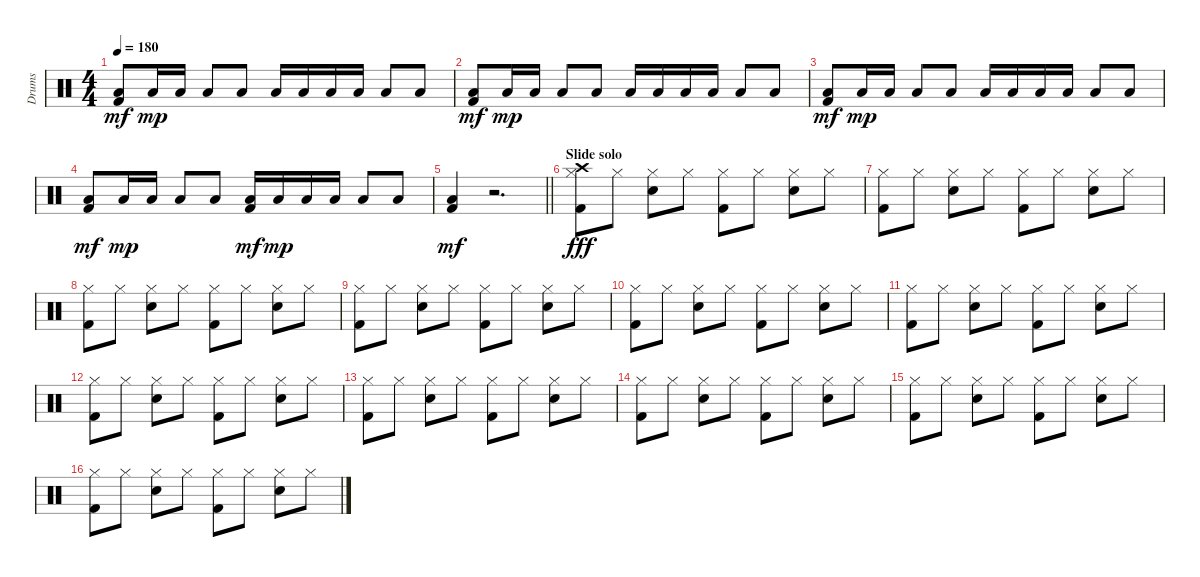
\track ("Drums" "Drums") {instrument percussion}
\staff {score}
\articulation defaults
\ts (4 4)
\tempo 180
\clef neutral
\ks c
("Low Tom (hit)" "Kick (hit) 2").8{dy mf} "Low Tom (hit)".16{dy mp} "Low Tom (hit)".16 "Low Tom (hit)".8 "Low Tom (hit)".8 "Low Tom (hit)".16 "Low Tom (hit)".16 "Low Tom (hit)".16 "Low Tom (hit)".16 "Low Tom (hit)".8 "Low Tom (hit)".8 |
("Low Tom (hit)" "Kick (hit) 2").8{dy mf} "Low Tom (hit)".16{dy mp} "Low Tom (hit)".16 "Low Tom (hit)".8 "Low Tom (hit)".8 "Low Tom (hit)".16 "Low Tom (hit)".16 "Low Tom (hit)".16 "Low Tom (hit)".16 "Low Tom (hit)".8 "Low Tom (hit)".8 |
("Low Tom (hit)" "Kick (hit) 2").8{dy mf} "Low Tom (hit)".16{dy mp} "Low Tom (hit)".16 "Low Tom (hit)".8 "Low Tom (hit)".8 "Low Tom (hit)".16 "Low Tom (hit)".16 "Low Tom (hit)".16 "Low Tom (hit)".16 "Low Tom (hit)".8 "Low Tom (hit)".8 |
("Low Tom (hit)" "Kick (hit) 2").8{dy mf} "Low Tom (hit)".16{dy mp} "Low Tom (hit)".16 "Low Tom (hit)".8 "Low Tom (hit)".8 ("Low Tom (hit)" "Kick (hit) 2").16{dy mf} "Low Tom (hit)".16{dy mp} "Low Tom (hit)".16 "Low Tom (hit)".16 "Low Tom (hit)".8 "Low Tom (hit)".8 |
\barLineRight lightlight
("Low Tom (hit)" "Kick (hit) 2").4{dy mf} r.2{d} |
\section ("" "Slide solo")
("Crash high (hit)" "Hi-Hat (closed)" "Kick (hit) 2").8{dy fff} "Hi-Hat (closed)".8 ("Hi-Hat (closed)" "Snare (hit) 2").8 "Hi-Hat (closed)".8 ("Hi-Hat (closed)" "Kick (hit) 2").8 "Hi-Hat (closed)".8 ("Hi-Hat (closed)" "Snare (hit) 2").8 "Hi-Hat (closed)".8 |
("Hi-Hat (closed)" "Kick (hit) 2").8 "Hi-Hat (closed)".8 ("Hi-Hat (closed)" "Snare (hit) 2").8 "Hi-Hat (closed)".8 ("Hi-Hat (closed)" "Kick (hit) 2").8 "Hi-Hat (closed)".8 ("Hi-Hat (closed)" "Snare (hit) 2").8 "Hi-Hat (closed)".8 |
("Hi-Hat (closed)" "Kick (hit) 2").8 "Hi-Hat (closed)".8 ("Hi-Hat (closed)" "Snare (hit) 2").8 "Hi-Hat (closed)".8 ("Hi-Hat (closed)" "Kick (hit) 2").8 "Hi-Hat (closed)".8 ("Hi-Hat (closed)" "Snare (hit) 2").8 "Hi-Hat (closed)".8 |
("Hi-Hat (closed)" "Kick (hit) 2").8 "Hi-Hat (closed)".8 ("Hi-Hat (closed)" "Snare (hit) 2").8 "Hi-Hat (closed)".8 ("Hi-Hat (closed)" "Kick (hit) 2").8 "Hi-Hat (closed)".8 ("Hi-Hat (closed)" "Snare (hit) 2").8 "Hi-Hat (closed)".8 |
("Hi-Hat (closed)" "Kick (hit) 2").8 "Hi-Hat (closed)".8 ("Hi-Hat (closed)" "Snare (hit) 2").8 "Hi-Hat (closed)".8 ("Hi-Hat (closed)" "Kick (hit) 2").8 "Hi-Hat (closed)".8 ("Hi-Hat (closed)" "Snare (hit) 2").8 "Hi-Hat (closed)".8 |
("Hi-Hat (closed)" "Kick (hit) 2").8 "Hi-Hat (closed)".8 ("Hi-Hat (closed)" "Snare (hit) 2").8 "Hi-Hat (closed)".8 ("Hi-Hat (closed)" "Kick (hit) 2").8 "Hi-Hat (closed)".8 ("Hi-Hat (closed)" "Snare (hit) 2").8 "Hi-Hat (closed)".8 |
("Hi-Hat (closed)" "Kick (hit) 2").8 "Hi-Hat (closed)".8 ("Hi-Hat (closed)" "Snare (hit) 2").8 "Hi-Hat (closed)".8 ("Hi-Hat (closed)" "Kick (hit) 2").8 "Hi-Hat (closed)".8 ("Hi-Hat (closed)" "Snare (hit) 2").8 "Hi-Hat (closed)".8 |
("Hi-Hat (closed)" "Kick (hit) 2").8 "Hi-Hat (closed)".8 ("Hi-Hat (closed)" "Snare (hit) 2").8 "Hi-Hat (closed)".8 ("Hi-Hat (closed)" "Kick (hit) 2").8 "Hi-Hat (closed)".8 ("Hi-Hat (closed)" "Snare (hit) 2").8 "Hi-Hat (closed)".8 |
("Hi-Hat (closed)" "Kick (hit) 2").8 "Hi-Hat (closed)".8 ("Hi-Hat (closed)" "Snare (hit) 2").8 "Hi-Hat (closed)".8 ("Hi-Hat (closed)" "Kick (hit) 2").8 "Hi-Hat (closed)".8 ("Hi-Hat (closed)" "Snare (hit) 2").8 "Hi-Hat (closed)".8 |
("Hi-Hat (closed)" "Kick (hit) 2").8 "Hi-Hat (closed)".8 ("Hi-Hat (closed)" "Snare (hit) 2").8 "Hi-Hat (closed)".8 ("Hi-Hat (closed)" "Kick (hit) 2").8 "Hi-Hat (closed)".8 ("Hi-Hat (closed)" "Snare (hit) 2").8 "Hi-Hat (closed)".8 |
("Hi-Hat (closed)" "Kick (hit) 2").8 "Hi-Hat (closed)".8 ("Hi-Hat (closed)" "Snare (hit) 2").8 "Hi-Hat (closed)".8 ("Hi-Hat (closed)" "Kick (hit) 2").8 "Hi-Hat (closed)".8 ("Hi-Hat (closed)" "Snare (hit) 2").8 "Hi-Hat (closed)".8
